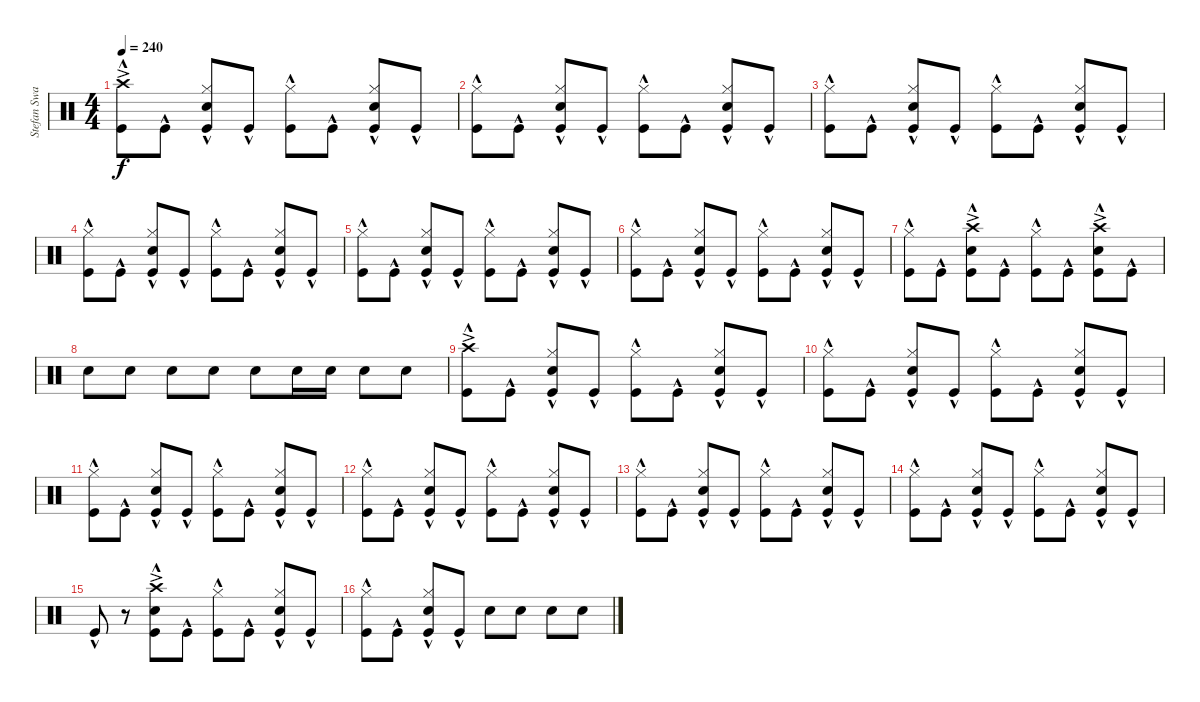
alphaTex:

\track ("Stefan Swarztmann" "Stefan Swa") {instrument percussion}
\staff {score}
\articulation defaults
\ts (4 4)
\tempo 240
\clef neutral
\ks c
("Crash high (hit)"{ac} "Kick (hit)"{hac}).8{dy f} "Kick (hit)"{hac}.8 ("Hi-Hat (closed)" "Snare (hit) 2" "Kick (hit)"{hac}).8 "Kick (hit)"{hac}.8 ("Hi-Hat (closed)" "Kick (hit)"{hac}).8 "Kick (hit)"{hac}.8 ("Hi-Hat (closed)" "Snare (hit) 2" "Kick (hit)"{hac}).8 "Kick (hit)"{hac}.8 |
("Hi-Hat (closed)" "Kick (hit)"{hac}).8 "Kick (hit)"{hac}.8 ("Hi-Hat (closed)" "Snare (hit) 2" "Kick (hit)"{hac}).8 "Kick (hit)"{hac}.8 ("Hi-Hat (closed)" "Kick (hit)"{hac}).8 "Kick (hit)"{hac}.8 ("Hi-Hat (closed)" "Snare (hit) 2" "Kick (hit)"{hac}).8 "Kick (hit)"{hac}.8 |
("Hi-Hat (closed)" "Kick (hit)"{hac}).8 "Kick (hit)"{hac}.8 ("Hi-Hat (closed)" "Snare (hit) 2" "Kick (hit)"{hac}).8 "Kick (hit)"{hac}.8 ("Hi-Hat (closed)" "Kick (hit)"{hac}).8 "Kick (hit)"{hac}.8 ("Hi-Hat (closed)" "Snare (hit) 2" "Kick (hit)"{hac}).8 "Kick (hit)"{hac}.8 |
("Hi-Hat (closed)" "Kick (hit)"{hac}).8 "Kick (hit)"{hac}.8 ("Hi-Hat (closed)" "Snare (hit) 2" "Kick (hit)"{hac}).8 "Kick (hit)"{hac}.8 ("Hi-Hat (closed)" "Kick (hit)"{hac}).8 "Kick (hit)"{hac}.8 ("Hi-Hat (closed)" "Snare (hit) 2" "Kick (hit)"{hac}).8 "Kick (hit)"{hac}.8 |
("Hi-Hat (closed)" "Kick (hit)"{hac}).8 "Kick (hit)"{hac}.8 ("Hi-Hat (closed)" "Snare (hit) 2" "Kick (hit)"{hac}).8 "Kick (hit)"{hac}.8 ("Hi-Hat (closed)" "Kick (hit)"{hac}).8 "Kick (hit)"{hac}.8 ("Hi-Hat (closed)" "Snare (hit) 2" "Kick (hit)"{hac}).8 "Kick (hit)"{hac}.8 |
("Hi-Hat (closed)" "Kick (hit)"{hac}).8 "Kick (hit)"{hac}.8 ("Hi-Hat (closed)" "Snare (hit) 2" "Kick (hit)"{hac}).8 "Kick (hit)"{hac}.8 ("Hi-Hat (closed)" "Kick (hit)"{hac}).8 "Kick (hit)"{hac}.8 ("Hi-Hat (closed)" "Snare (hit) 2" "Kick (hit)"{hac}).8 "Kick (hit)"{hac}.8 |
("Hi-Hat (closed)" "Kick (hit)"{hac}).8 "Kick (hit)"{hac}.8 ("Crash high (hit)"{ac} "Snare (hit) 2" "Kick (hit)"{hac}).8 "Kick (hit)"{hac}.8 ("Hi-Hat (closed)" "Kick (hit)"{hac}).8 "Kick (hit)"{hac}.8 ("Crash high (hit)"{ac} "Snare (hit) 2" "Kick (hit)"{hac}).8 "Kick (hit)"{hac}.8 |
"Snare (hit) 2".8 "Snare (hit) 2".8 "Snare (hit) 2".8 "Snare (hit) 2".8 "Snare (hit) 2".8 "Snare (hit) 2".16 "Snare (hit) 2".16 "Snare (hit) 2".8 "Snare (hit) 2".8 |
("Crash high (hit)"{ac} "Kick (hit)"{hac}).8 "Kick (hit)"{hac}.8 ("Hi-Hat (closed)" "Snare (hit) 2" "Kick (hit)"{hac}).8 "Kick (hit)"{hac}.8 ("Hi-Hat (closed)" "Kick (hit)"{hac}).8 "Kick (hit)"{hac}.8 ("Hi-Hat (closed)" "Snare (hit) 2" "Kick (hit)"{hac}).8 "Kick (hit)"{hac}.8 |
("Hi-Hat (closed)" "Kick (hit)"{hac}).8 "Kick (hit)"{hac}.8 ("Hi-Hat (closed)" "Snare (hit) 2" "Kick (hit)"{hac}).8 "Kick (hit)"{hac}.8 ("Hi-Hat (closed)" "Kick (hit)"{hac}).8 "Kick (hit)"{hac}.8 ("Hi-Hat (closed)" "Snare (hit) 2" "Kick (hit)"{hac}).8 "Kick (hit)"{hac}.8 |
("Hi-Hat (closed)" "Kick (hit)"{hac}).8 "Kick (hit)"{hac}.8 ("Hi-Hat (closed)" "Snare (hit) 2" "Kick (hit)"{hac}).8 "Kick (hit)"{hac}.8 ("Hi-Hat (closed)" "Kick (hit)"{hac}).8 "Kick (hit)"{hac}.8 ("Hi-Hat (closed)" "Snare (hit) 2" "Kick (hit)"{hac}).8 "Kick (hit)"{hac}.8 |
("Hi-Hat (closed)" "Kick (hit)"{hac}).8 "Kick (hit)"{hac}.8 ("Hi-Hat (closed)" "Snare (hit) 2" "Kick (hit)"{hac}).8 "Kick (hit)"{hac}.8 ("Hi-Hat (closed)" "Kick (hit)"{hac}).8 "Kick (hit)"{hac}.8 ("Hi-Hat (closed)" "Snare (hit) 2" "Kick (hit)"{hac}).8 "Kick (hit)"{hac}.8 |
("Hi-Hat (closed)" "Kick (hit)"{hac}).8 "Kick (hit)"{hac}.8 ("Hi-Hat (closed)" "Snare (hit) 2" "Kick (hit)"{hac}).8 "Kick (hit)"{hac}.8 ("Hi-Hat (closed)" "Kick (hit)"{hac}).8 "Kick (hit)"{hac}.8 ("Hi-Hat (closed)" "Snare (hit) 2" "Kick (hit)"{hac}).8 "Kick (hit)"{hac}.8 |
("Hi-Hat (closed)" "Kick (hit)"{hac}).8 "Kick (hit)"{hac}.8 ("Hi-Hat (closed)" "Snare (hit) 2" "Kick (hit)"{hac}).8 "Kick (hit)"{hac}.8 ("Hi-Hat (closed)" "Kick (hit)"{hac}).8 "Kick (hit)"{hac}.8 ("Hi-Hat (closed)" "Snare (hit) 2" "Kick (hit)"{hac}).8 "Kick (hit)"{hac}.8 |
"Kick (hit)"{hac}.8 r.8 ("Crash high (hit)"{ac} "Snare (hit) 2" "Kick (hit)"{hac}).8 "Kick (hit)"{hac}.8 ("Hi-Hat (closed)" "Kick (hit)"{hac}).8 "Kick (hit)"{hac}.8 ("Hi-Hat (closed)" "Snare (hit) 2" "Kick (hit)"{hac}).8 "Kick (hit)"{hac}.8 |
("Hi-Hat (closed)" "Kick (hit)"{hac}).8 "Kick (hit)"{hac}.8 ("Hi-Hat (closed)" "Snare (hit) 2" "Kick (hit)"{hac}).8 "Kick (hit)"{hac}.8 "Snare (hit) 2".8 "Snare (hit) 2".8 "Snare (hit) 2".8 "Snare (hit) 2".8
